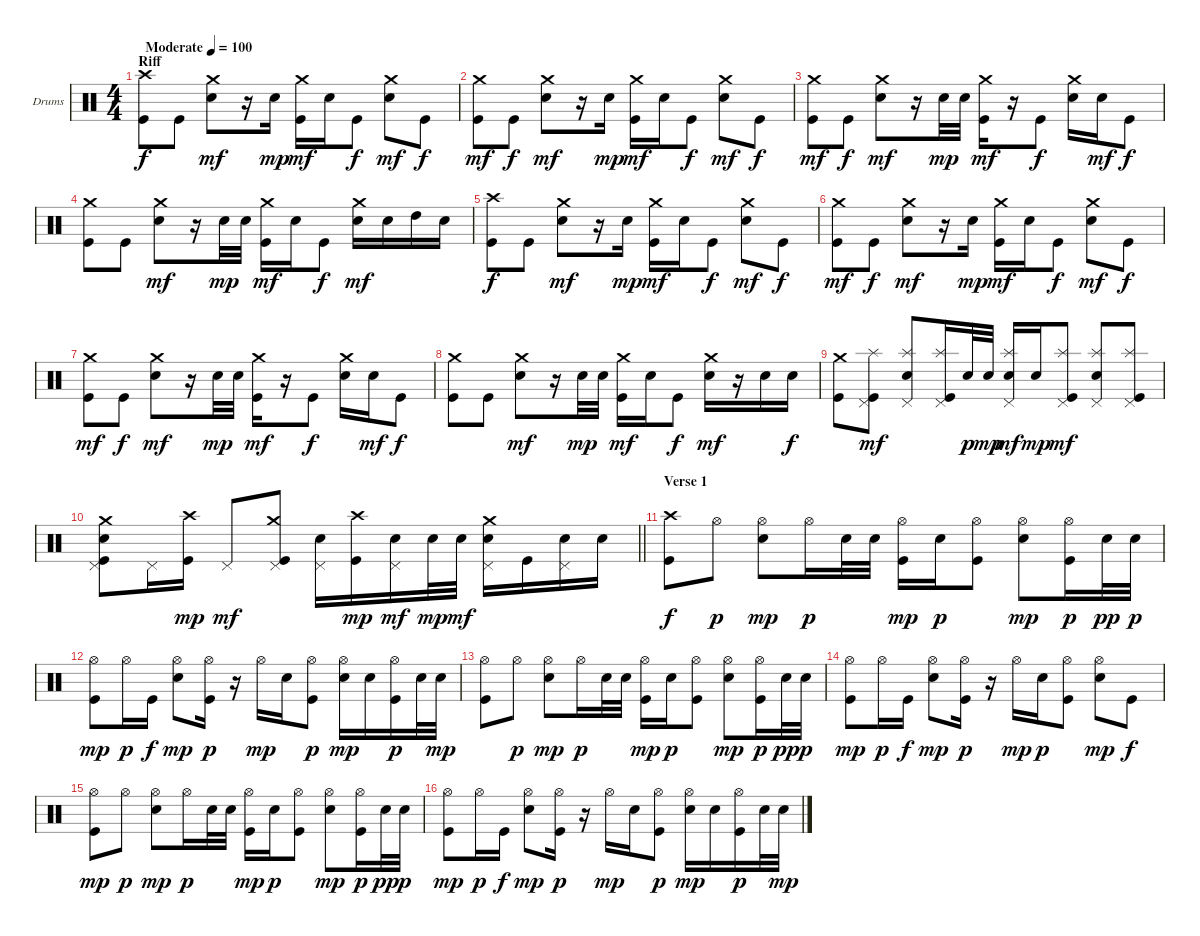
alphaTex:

\bracketExtendMode groupsimilarinstruments
\firstSystemTrackNameOrientation horizontal
\otherSystemsTrackNameOrientation horizontal
\track ("Drumkit" "Drums") {solo instrument percussion}
\staff {score}
\articulation defaults
\ts (4 4)
\beaming (8 2 2 2 2)
\section ("" "Riff")
\tempo (100 "Moderate")
\clef neutral
\ks c
("Crash high (hit)" "Kick (hit)").8{dy f} "Kick (hit)".8 ("Crash medium (hit)" "Snare (hit) 2").8{dy mf} r.16 "Snare (hit) 2".16{dy mp} ("Crash medium (hit)" "Kick (hit)").16{dy mf} "Snare (hit) 2".16 "Kick (hit)".8{dy f} ("Crash medium (hit)" "Snare (hit) 2").8{dy mf} "Kick (hit)".8{dy f} |
("Crash medium (hit)" "Kick (hit)").8{dy mf} "Kick (hit)".8{dy f} ("Crash medium (hit)" "Snare (hit) 2").8{dy mf} r.16 "Snare (hit) 2".16{dy mp} ("Crash medium (hit)" "Kick (hit)").16{dy mf} "Snare (hit) 2".16 "Kick (hit)".8{dy f} ("Crash medium (hit)" "Snare (hit) 2").8{dy mf} "Kick (hit)".8{dy f} |
("Crash medium (hit)" "Kick (hit)").8{dy mf} "Kick (hit)".8{dy f} ("Crash medium (hit)" "Snare (hit) 2").8{dy mf} r.16 "Snare (hit) 2".32{dy mp} "Snare (hit) 2".32 ("Crash medium (hit)" "Kick (hit)").16{dy mf} r.16 "Kick (hit)".8{dy f} ("Crash medium (hit)" "Snare (hit) 2").16 "Snare (hit) 2".16{dy mf} "Kick (hit)".8{dy f} |
("Crash medium (hit)" "Kick (hit)").8 "Kick (hit)".8 ("Crash medium (hit)" "Snare (hit) 2").8{dy mf} r.16 "Snare (hit) 2".32{dy mp} "Snare (hit) 2".32 ("Crash medium (hit)" "Kick (hit)").16{dy mf} "Snare (hit) 2".16 "Kick (hit)".8{dy f} ("Crash medium (hit)" "Snare (hit) 2").16{dy mf} "Snare (hit) 2".16 "High Tom (hit)".16 "Snare (hit) 2".16 |
("Crash high (hit)" "Kick (hit)").8{dy f} "Kick (hit)".8 ("Crash medium (hit)" "Snare (hit) 2").8{dy mf} r.16 "Snare (hit) 2".16{dy mp} ("Crash medium (hit)" "Kick (hit)").16{dy mf} "Snare (hit) 2".16 "Kick (hit)".8{dy f} ("Crash medium (hit)" "Snare (hit) 2").8{dy mf} "Kick (hit)".8{dy f} |
("Crash medium (hit)" "Kick (hit)").8{dy mf} "Kick (hit)".8{dy f} ("Crash medium (hit)" "Snare (hit) 2").8{dy mf} r.16 "Snare (hit) 2".16{dy mp} ("Crash medium (hit)" "Kick (hit)").16{dy mf} "Snare (hit) 2".16 "Kick (hit)".8{dy f} ("Crash medium (hit)" "Snare (hit) 2").8{dy mf} "Kick (hit)".8{dy f} |
("Crash medium (hit)" "Kick (hit)").8{dy mf} "Kick (hit)".8{dy f} ("Crash medium (hit)" "Snare (hit) 2").8{dy mf} r.16 "Snare (hit) 2".32{dy mp} "Snare (hit) 2".32 ("Crash medium (hit)" "Kick (hit)").16{dy mf} r.16 "Kick (hit)".8{dy f} ("Crash medium (hit)" "Snare (hit) 2").16 "Snare (hit) 2".16{dy mf} "Kick (hit)".8{dy f} |
("Crash medium (hit)" "Kick (hit)").8 "Kick (hit)".8 ("Crash medium (hit)" "Snare (hit) 2").8{dy mf} r.16 "Snare (hit) 2".32{dy mp} "Snare (hit) 2".32 ("Crash medium (hit)" "Kick (hit)").16{dy mf} "Snare (hit) 2".16 "Kick (hit)".8{dy f} ("Crash medium (hit)" "Snare (hit) 2").16{dy mf} r.16 "Snare (hit) 2".16 "Snare (hit) 2".16{dy f} |
("Crash medium (hit)" "Kick (hit)").8 ("Splash (hit)" "Pedal Hi-Hat (hit)" "Kick (hit)").8{dy mf} ("Splash (hit)" "Pedal Hi-Hat (hit)" "Snare (hit) 2").8 ("Splash (hit)" "Pedal Hi-Hat (hit)" "Kick (hit)").16 "Snare (hit) 2".32{dy p} "Snare (hit) 2".32{dy mp} ("Splash (hit)" "Pedal Hi-Hat (hit)" "Snare (hit) 2").16{dy mf} "Snare (hit) 2".16{dy mp} ("Splash (hit)" "Pedal Hi-Hat (hit)" "Kick (hit)").8{dy mf} ("Splash (hit)" "Pedal Hi-Hat (hit)" "Snare (hit) 2").8 ("Splash (hit)" "Pedal Hi-Hat (hit)" "Kick (hit)").8 |
\barLineRight lightlight
("Crash medium (hit)" "Pedal Hi-Hat (hit)" "Snare (hit) 2" "Kick (hit)").8 "Pedal Hi-Hat (hit)".16 ("Crash high (hit)" "Kick (hit)").16{dy mp} "Pedal Hi-Hat (hit)".8{dy mf} ("Crash medium (hit)" "Pedal Hi-Hat (hit)" "Kick (hit)").8 ("Pedal Hi-Hat (hit)" "Snare (hit) 2").16 ("Crash high (hit)" "Kick (hit)").16{dy mp} ("Pedal Hi-Hat (hit)" "Snare (hit) 2").16{dy mf} "Snare (hit) 2".32{dy mp} "Snare (hit) 2".32{dy mf} ("Crash medium (hit)" "Pedal Hi-Hat (hit)" "Snare (hit) 2").16 "Kick (hit)".16 ("Pedal Hi-Hat (hit)" "Snare (hit) 2").16 "Snare (hit) 2".16 |
\section ("" "Verse 1")
("Crash high (hit)" "Kick (hit)").8{dy f} "Hi-Hat (open)".8{dy p} ("Hi-Hat (open)" "Snare (hit) 2").8{dy mp} "Hi-Hat (open)".16{dy p} "Snare (hit) 2".32 "Snare (hit) 2".32 ("Hi-Hat (open)" "Kick (hit)").16{dy mp} "Snare (hit) 2".16{dy p} ("Hi-Hat (open)" "Kick (hit)").8 ("Hi-Hat (open)" "Snare (hit) 2").8{dy mp} ("Hi-Hat (open)" "Kick (hit)").16{dy p} "Snare (hit) 2".32{dy pp} "Snare (hit) 2".32{dy p} |
("Hi-Hat (open)" "Kick (hit)").8{dy mp} "Hi-Hat (open)".16{dy p} "Kick (hit)".16{dy f} ("Hi-Hat (open)" "Snare (hit) 2").8{dy mp} ("Hi-Hat (open)" "Kick (hit)").16{dy p} r.16 "Hi-Hat (open)".16{dy mp} "Snare (hit) 2".16 ("Hi-Hat (open)" "Kick (hit)").8{dy p} ("Hi-Hat (open)" "Snare (hit) 2").16{dy mp} "Snare (hit) 2".16 ("Hi-Hat (open)" "Kick (hit)").16{dy p} "Snare (hit) 2".32 "Snare (hit) 2".32{dy mp} |
("Hi-Hat (open)" "Kick (hit)").8 "Hi-Hat (open)".8{dy p} ("Hi-Hat (open)" "Snare (hit) 2").8{dy mp} "Hi-Hat (open)".16{dy p} "Snare (hit) 2".32 "Snare (hit) 2".32 ("Hi-Hat (open)" "Kick (hit)").16{dy mp} "Snare (hit) 2".16{dy p} ("Hi-Hat (open)" "Kick (hit)").8 ("Hi-Hat (open)" "Snare (hit) 2").8{dy mp} ("Hi-Hat (open)" "Kick (hit)").16{dy p} "Snare (hit) 2".32{dy pp} "Snare (hit) 2".32{dy p} |
("Hi-Hat (open)" "Kick (hit)").8{dy mp} "Hi-Hat (open)".16{dy p} "Kick (hit)".16{dy f} ("Hi-Hat (open)" "Snare (hit) 2").8{dy mp} ("Hi-Hat (open)" "Kick (hit)").16{dy p} r.16 "Hi-Hat (open)".16{dy mp} "Snare (hit) 2".16{dy p} ("Hi-Hat (open)" "Kick (hit)").8 ("Hi-Hat (open)" "Snare (hit) 2").8{dy mp} "Kick (hit)".8{dy f} |
("Hi-Hat (open)" "Kick (hit)").8{dy mp} "Hi-Hat (open)".8{dy p} ("Hi-Hat (open)" "Snare (hit) 2").8{dy mp} "Hi-Hat (open)".16{dy p} "Snare (hit) 2".32 "Snare (hit) 2".32 ("Hi-Hat (open)" "Kick (hit)").16{dy mp} "Snare (hit) 2".16{dy p} ("Hi-Hat (open)" "Kick (hit)").8 ("Hi-Hat (open)" "Snare (hit) 2").8{dy mp} ("Hi-Hat (open)" "Kick (hit)").16{dy p} "Snare (hit) 2".32{dy pp} "Snare (hit) 2".32{dy p} |
("Hi-Hat (open)" "Kick (hit)").8{dy mp} "Hi-Hat (open)".16{dy p} "Kick (hit)".16{dy f} ("Hi-Hat (open)" "Snare (hit) 2").8{dy mp} ("Hi-Hat (open)" "Kick (hit)").16{dy p} r.16 "Hi-Hat (open)".16{dy mp} "Snare (hit) 2".16 ("Hi-Hat (open)" "Kick (hit)").8{dy p} ("Hi-Hat (open)" "Snare (hit) 2").16{dy mp} "Snare (hit) 2".16 ("Hi-Hat (open)" "Kick (hit)").16{dy p} "Snare (hit) 2".32 "Snare (hit) 2".32{dy mp}
